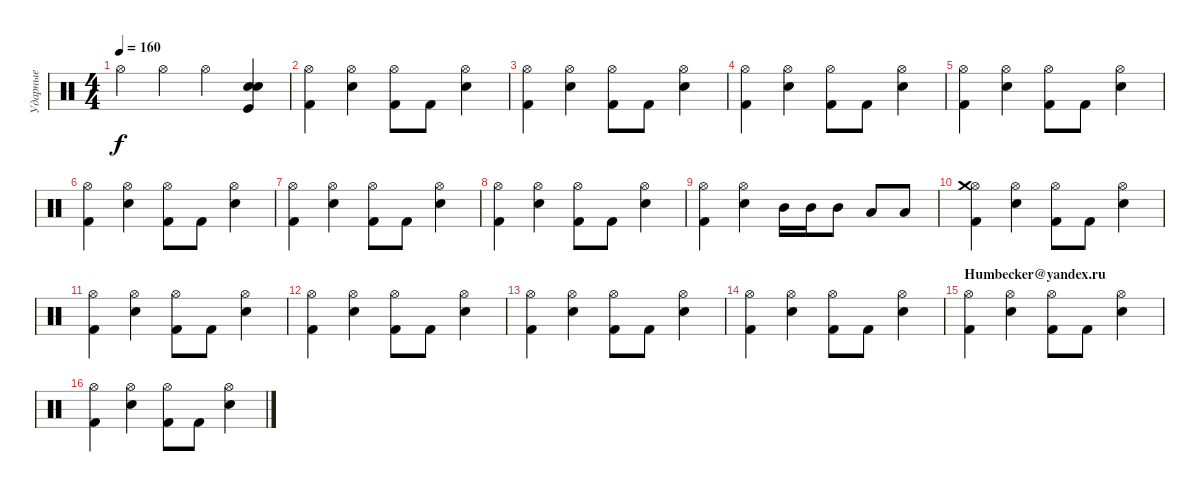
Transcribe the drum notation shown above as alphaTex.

\track ("Ударные" "Ударные") {instrument percussion}
\staff {score}
\articulation defaults
\ts (4 4)
\tempo 160
\clef neutral
\ks c "Hi-Hat (open)".4{dy f} "Hi-Hat (open)".4 "Hi-Hat (open)".4
("Kick (hit)" "Electric Snare (hit)" "Electric Snare (hit)").4{bu 120} |
("Hi-Hat (open)" "Kick (hit) 2").4 ("Hi-Hat (open)" "Electric Snare (hit)").4 ("Hi-Hat (open)" "Kick (hit) 2").8 "Kick (hit) 2".8 ("Hi-Hat (open)" "Electric Snare (hit)").4 |
("Hi-Hat (open)" "Kick (hit) 2").4 ("Hi-Hat (open)" "Electric Snare (hit)").4 ("Hi-Hat (open)" "Kick (hit) 2").8 "Kick (hit) 2".8 ("Hi-Hat (open)" "Electric Snare (hit)").4 |
("Hi-Hat (open)" "Kick (hit) 2").4 ("Hi-Hat (open)" "Electric Snare (hit)").4 ("Hi-Hat (open)" "Kick (hit) 2").8 "Kick (hit) 2".8 ("Hi-Hat (open)" "Electric Snare (hit)").4 |
("Hi-Hat (open)" "Kick (hit) 2").4 ("Hi-Hat (open)" "Electric Snare (hit)").4 ("Hi-Hat (open)" "Kick (hit) 2").8 "Kick (hit) 2".8 ("Hi-Hat (open)" "Electric Snare (hit)").4 |
("Hi-Hat (open)" "Kick (hit) 2").4 ("Hi-Hat (open)" "Electric Snare (hit)").4 ("Hi-Hat (open)" "Kick (hit) 2").8 "Kick (hit) 2".8 ("Hi-Hat (open)" "Electric Snare (hit)").4 |
("Hi-Hat (open)" "Kick (hit) 2").4 ("Hi-Hat (open)" "Electric Snare (hit)").4 ("Hi-Hat (open)" "Kick (hit) 2").8 "Kick (hit) 2".8 ("Hi-Hat (open)" "Electric Snare (hit)").4 |
("Hi-Hat (open)" "Kick (hit) 2").4 ("Hi-Hat (open)" "Electric Snare (hit)").4 ("Hi-Hat (open)" "Kick (hit) 2").8 "Kick (hit) 2".8 ("Hi-Hat (open)" "Electric Snare (hit)").4 |
("Hi-Hat (open)" "Kick (hit) 2").4 ("Hi-Hat (open)" "Electric Snare (hit)").4 "Mid Tom (hit)".16 "Mid Tom (hit)".16 "Mid Tom (hit)".8 "Low Tom (hit)".8 "Low Tom (hit)".8 |
("Hi-Hat (open)" "Kick (hit) 2" "Crash medium (hit)").4 ("Hi-Hat (open)" "Electric Snare (hit)").4 ("Hi-Hat (open)" "Kick (hit) 2").8 "Kick (hit) 2".8 ("Hi-Hat (open)" "Electric Snare (hit)").4 |
("Hi-Hat (open)" "Kick (hit) 2").4 ("Hi-Hat (open)" "Electric Snare (hit)").4 ("Hi-Hat (open)" "Kick (hit) 2").8 "Kick (hit) 2".8 ("Hi-Hat (open)" "Electric Snare (hit)").4 |
("Hi-Hat (open)" "Kick (hit) 2").4 ("Hi-Hat (open)" "Electric Snare (hit)").4 ("Hi-Hat (open)" "Kick (hit) 2").8 "Kick (hit) 2".8 ("Hi-Hat (open)" "Electric Snare (hit)").4 |
("Hi-Hat (open)" "Kick (hit) 2").4 ("Hi-Hat (open)" "Electric Snare (hit)").4 ("Hi-Hat (open)" "Kick (hit) 2").8 "Kick (hit) 2".8 ("Hi-Hat (open)" "Electric Snare (hit)").4 |
("Hi-Hat (open)" "Kick (hit) 2").4 ("Hi-Hat (open)" "Electric Snare (hit)").4 ("Hi-Hat (open)" "Kick (hit) 2").8 "Kick (hit) 2".8 ("Hi-Hat (open)" "Electric Snare (hit)").4 |
\section ("" "Humbecker@yandex.ru")
("Hi-Hat (open)" "Kick (hit) 2").4 ("Hi-Hat (open)" "Electric Snare (hit)").4 ("Hi-Hat (open)" "Kick (hit) 2").8 "Kick (hit) 2".8 ("Hi-Hat (open)" "Electric Snare (hit)").4 |
("Hi-Hat (open)" "Kick (hit) 2").4 ("Hi-Hat (open)" "Electric Snare (hit)").4 ("Hi-Hat (open)" "Kick (hit) 2").8 "Kick (hit) 2".8 ("Hi-Hat (open)" "Electric Snare (hit)").4
